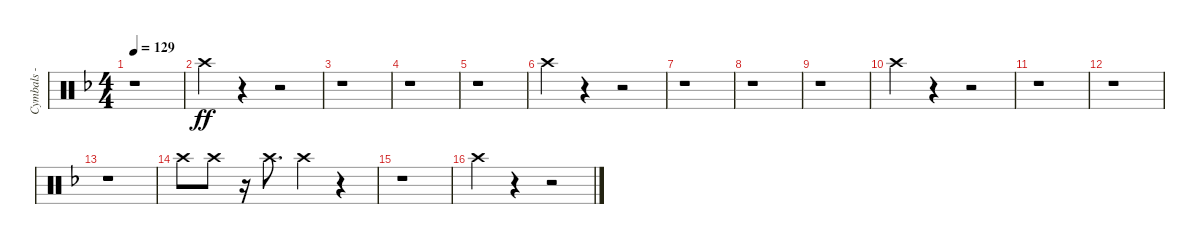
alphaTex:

\track ("Cymbals - crash" "Cymbals - ") {instrument percussion}
\staff {score}
\articulation defaults
\ts (4 4)
\tempo 129
\clef neutral
\ks dminor
r.1{dy ff} |
"Crash high (hit)".4 r.4 r.2 |
r.1 |
r.1 |
r.1 |
"Crash high (hit)".4 r.4 r.2 |
r.1 |
r.1 |
r.1 |
"Crash high (hit)".4 r.4 r.2 |
r.1 |
r.1 |
r.1 |
"Crash high (hit)".8 "Crash high (hit)".8 r.16 "Crash high (hit)".8{d} "Crash high (hit)".4 r.4 |
r.1 |
"Crash high (hit)".4 r.4 r.2
